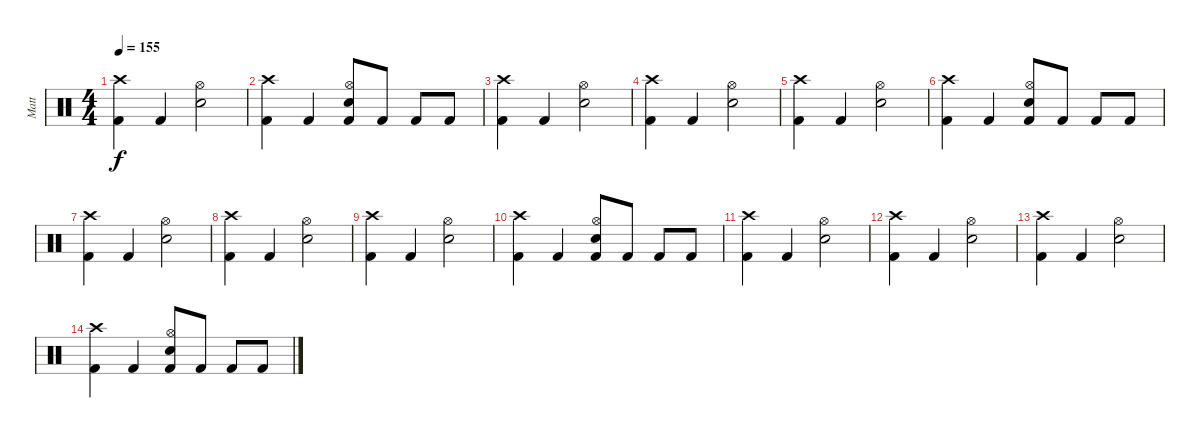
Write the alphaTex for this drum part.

\track ("Matt" "Matt") {instrument percussion}
\staff {score}
\articulation defaults
\ts (4 4)
\tempo 155
\clef neutral
\ks c
("Crash high (hit)" "Kick (hit) 2").4{dy f} "Kick (hit) 2".4 ("Hi-Hat (open)" "Snare (hit) 2").2 |
("Crash high (hit)" "Kick (hit) 2").4 "Kick (hit) 2".4 ("Hi-Hat (open)" "Snare (hit) 2" "Kick (hit) 2").8 "Kick (hit) 2".8 "Kick (hit) 2".8 "Kick (hit) 2".8 |
("Crash high (hit)" "Kick (hit) 2").4 "Kick (hit) 2".4 ("Hi-Hat (open)" "Snare (hit) 2").2 |
("Crash high (hit)" "Kick (hit) 2").4 "Kick (hit) 2".4 ("Hi-Hat (open)" "Snare (hit) 2").2 |
("Crash high (hit)" "Kick (hit) 2").4 "Kick (hit) 2".4 ("Hi-Hat (open)" "Snare (hit) 2").2 |
("Crash high (hit)" "Kick (hit) 2").4 "Kick (hit) 2".4 ("Hi-Hat (open)" "Snare (hit) 2" "Kick (hit) 2").8 "Kick (hit) 2".8 "Kick (hit) 2".8 "Kick (hit) 2".8 |
("Crash high (hit)" "Kick (hit) 2").4 "Kick (hit) 2".4 ("Hi-Hat (open)" "Snare (hit) 2").2 |
("Crash high (hit)" "Kick (hit) 2").4 "Kick (hit) 2".4 ("Hi-Hat (open)" "Snare (hit) 2").2 |
("Crash high (hit)" "Kick (hit) 2").4 "Kick (hit) 2".4 ("Hi-Hat (open)" "Snare (hit) 2").2 |
("Crash high (hit)" "Kick (hit) 2").4 "Kick (hit) 2".4 ("Hi-Hat (open)" "Snare (hit) 2" "Kick (hit) 2").8 "Kick (hit) 2".8 "Kick (hit) 2".8 "Kick (hit) 2".8 |
("Crash high (hit)" "Kick (hit) 2").4 "Kick (hit) 2".4 ("Hi-Hat (open)" "Snare (hit) 2").2 |
("Crash high (hit)" "Kick (hit) 2").4 "Kick (hit) 2".4 ("Hi-Hat (open)" "Snare (hit) 2").2 |
("Crash high (hit)" "Kick (hit) 2").4 "Kick (hit) 2".4 ("Hi-Hat (open)" "Snare (hit) 2").2 |
("Crash high (hit)" "Kick (hit) 2").4 "Kick (hit) 2".4 ("Hi-Hat (open)" "Snare (hit) 2" "Kick (hit) 2").8 "Kick (hit) 2".8 "Kick (hit) 2".8 "Kick (hit) 2".8
